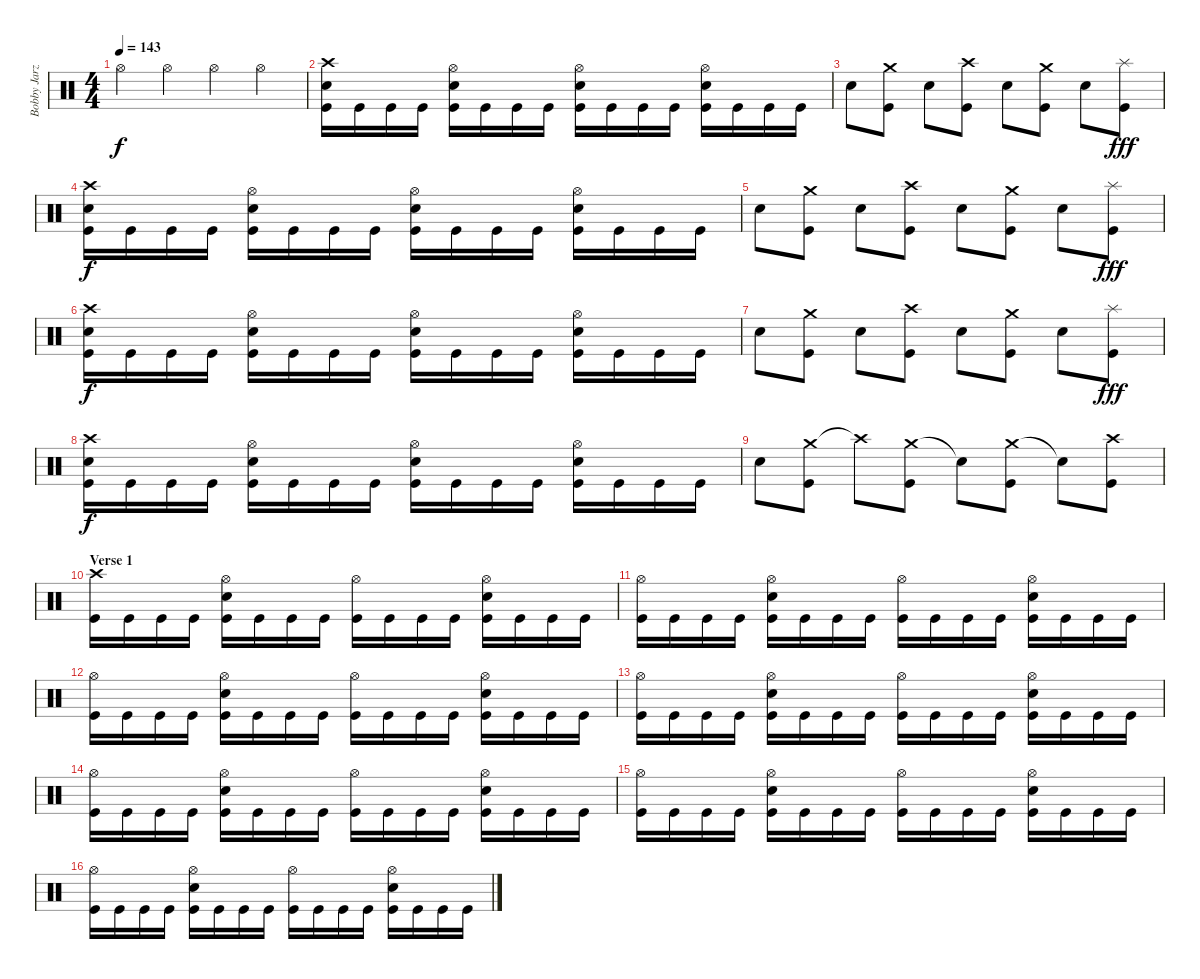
\track ("Bobby Jarzombek" "Bobby Jarz") {instrument percussion}
\staff {score}
\articulation defaults
\ts (4 4)
\tempo 143
\clef neutral
\ks c "Hi-Hat (open)".4{dy f} "Hi-Hat (open)".4 "Hi-Hat (open)".4 "Hi-Hat (open)".4
|
("Crash high (hit)" "Electric Snare (hit)" "Kick (hit)").16 "Kick (hit)".16 "Kick (hit)".16 "Kick (hit)".16 ("Hi-Hat (open)" "Electric Snare (hit)" "Kick (hit)").16 "Kick (hit)".16 "Kick (hit)".16 "Kick (hit)".16 ("Hi-Hat (open)" "Electric Snare (hit)" "Kick (hit)").16 "Kick (hit)".16 "Kick (hit)".16 "Kick (hit)".16 ("Hi-Hat (open)" "Electric Snare (hit)" "Kick (hit)").16 "Kick (hit)".16 "Kick (hit)".16 "Kick (hit)".16 |
"Electric Snare (hit)".8 ("Crash medium (hit)" "Kick (hit)").8 "Electric Snare (hit)".8 ("Crash high (hit)" "Kick (hit)").8 "Electric Snare (hit)".8 ("Crash medium (hit)" "Kick (hit)").8 "Electric Snare (hit)".8 ("Splash (hit)" "Kick (hit)").8{dy fff} |
("Crash high (hit)" "Electric Snare (hit)" "Kick (hit)").16{dy f} "Kick (hit)".16 "Kick (hit)".16 "Kick (hit)".16 ("Hi-Hat (open)" "Electric Snare (hit)" "Kick (hit)").16 "Kick (hit)".16 "Kick (hit)".16 "Kick (hit)".16 ("Hi-Hat (open)" "Electric Snare (hit)" "Kick (hit)").16 "Kick (hit)".16 "Kick (hit)".16 "Kick (hit)".16 ("Hi-Hat (open)" "Electric Snare (hit)" "Kick (hit)").16 "Kick (hit)".16 "Kick (hit)".16 "Kick (hit)".16 |
"Electric Snare (hit)".8 ("Crash medium (hit)" "Kick (hit)").8 "Electric Snare (hit)".8 ("Crash high (hit)" "Kick (hit)").8 "Electric Snare (hit)".8 ("Crash medium (hit)" "Kick (hit)").8 "Electric Snare (hit)".8 ("Splash (hit)" "Kick (hit)").8{dy fff} |
("Crash high (hit)" "Electric Snare (hit)" "Kick (hit)").16{dy f} "Kick (hit)".16 "Kick (hit)".16 "Kick (hit)".16 ("Hi-Hat (open)" "Electric Snare (hit)" "Kick (hit)").16 "Kick (hit)".16 "Kick (hit)".16 "Kick (hit)".16 ("Hi-Hat (open)" "Electric Snare (hit)" "Kick (hit)").16 "Kick (hit)".16 "Kick (hit)".16 "Kick (hit)".16 ("Hi-Hat (open)" "Electric Snare (hit)" "Kick (hit)").16 "Kick (hit)".16 "Kick (hit)".16 "Kick (hit)".16 |
"Electric Snare (hit)".8 ("Crash medium (hit)" "Kick (hit)").8 "Electric Snare (hit)".8 ("Crash high (hit)" "Kick (hit)").8 "Electric Snare (hit)".8 ("Crash medium (hit)" "Kick (hit)").8 "Electric Snare (hit)".8 ("Splash (hit)" "Kick (hit)").8{dy fff} |
("Crash high (hit)" "Electric Snare (hit)" "Kick (hit)").16{dy f} "Kick (hit)".16 "Kick (hit)".16 "Kick (hit)".16 ("Hi-Hat (open)" "Electric Snare (hit)" "Kick (hit)").16 "Kick (hit)".16 "Kick (hit)".16 "Kick (hit)".16 ("Hi-Hat (open)" "Electric Snare (hit)" "Kick (hit)").16 "Kick (hit)".16 "Kick (hit)".16 "Kick (hit)".16 ("Hi-Hat (open)" "Electric Snare (hit)" "Kick (hit)").16 "Kick (hit)".16 "Kick (hit)".16 "Kick (hit)".16 |
"Electric Snare (hit)".8 ("Crash medium (hit)" "Kick (hit)").8 "Crash high (hit)"{t}.8{volume 0} ("Crash medium (hit)" "Kick (hit)").8{volume 13} "Snare (hit)"{t}.8{volume 0} ("Crash medium (hit)" "Kick (hit)").8{volume 13} "Snare (hit)"{t}.8{volume 0} ("Crash high (hit)" "Kick (hit)").8{volume 13} |
\section ("" "Verse 1")
("Crash high (hit)" "Kick (hit)").16 "Kick (hit)".16 "Kick (hit)".16 "Kick (hit)".16 ("Hi-Hat (open)" "Electric Snare (hit)" "Kick (hit)").16 "Kick (hit)".16 "Kick (hit)".16 "Kick (hit)".16 ("Hi-Hat (open)" "Kick (hit)").16 "Kick (hit)".16 "Kick (hit)".16 "Kick (hit)".16 ("Hi-Hat (open)" "Electric Snare (hit)" "Kick (hit)").16 "Kick (hit)".16 "Kick (hit)".16 "Kick (hit)".16 |
("Hi-Hat (open)" "Kick (hit)").16 "Kick (hit)".16 "Kick (hit)".16 "Kick (hit)".16 ("Hi-Hat (open)" "Electric Snare (hit)" "Kick (hit)").16 "Kick (hit)".16 "Kick (hit)".16 "Kick (hit)".16 ("Hi-Hat (open)" "Kick (hit)").16 "Kick (hit)".16 "Kick (hit)".16 "Kick (hit)".16 ("Hi-Hat (open)" "Electric Snare (hit)" "Kick (hit)").16 "Kick (hit)".16 "Kick (hit)".16 "Kick (hit)".16 |
("Hi-Hat (open)" "Kick (hit)").16 "Kick (hit)".16 "Kick (hit)".16 "Kick (hit)".16 ("Hi-Hat (open)" "Electric Snare (hit)" "Kick (hit)").16 "Kick (hit)".16 "Kick (hit)".16 "Kick (hit)".16 ("Hi-Hat (open)" "Kick (hit)").16 "Kick (hit)".16 "Kick (hit)".16 "Kick (hit)".16 ("Hi-Hat (open)" "Electric Snare (hit)" "Kick (hit)").16 "Kick (hit)".16 "Kick (hit)".16 "Kick (hit)".16 |
("Hi-Hat (open)" "Kick (hit)").16 "Kick (hit)".16 "Kick (hit)".16 "Kick (hit)".16 ("Hi-Hat (open)" "Electric Snare (hit)" "Kick (hit)").16 "Kick (hit)".16 "Kick (hit)".16 "Kick (hit)".16 ("Hi-Hat (open)" "Kick (hit)").16 "Kick (hit)".16 "Kick (hit)".16 "Kick (hit)".16 ("Hi-Hat (open)" "Electric Snare (hit)" "Kick (hit)").16 "Kick (hit)".16 "Kick (hit)".16 "Kick (hit)".16 |
("Hi-Hat (open)" "Kick (hit)").16 "Kick (hit)".16 "Kick (hit)".16 "Kick (hit)".16 ("Hi-Hat (open)" "Electric Snare (hit)" "Kick (hit)").16 "Kick (hit)".16 "Kick (hit)".16 "Kick (hit)".16 ("Hi-Hat (open)" "Kick (hit)").16 "Kick (hit)".16 "Kick (hit)".16 "Kick (hit)".16 ("Hi-Hat (open)" "Electric Snare (hit)" "Kick (hit)").16 "Kick (hit)".16 "Kick (hit)".16 "Kick (hit)".16 |
("Hi-Hat (open)" "Kick (hit)").16 "Kick (hit)".16 "Kick (hit)".16 "Kick (hit)".16 ("Hi-Hat (open)" "Electric Snare (hit)" "Kick (hit)").16 "Kick (hit)".16 "Kick (hit)".16 "Kick (hit)".16 ("Hi-Hat (open)" "Kick (hit)").16 "Kick (hit)".16 "Kick (hit)".16 "Kick (hit)".16 ("Hi-Hat (open)" "Electric Snare (hit)" "Kick (hit)").16 "Kick (hit)".16 "Kick (hit)".16 "Kick (hit)".16 |
("Hi-Hat (open)" "Kick (hit)").16 "Kick (hit)".16 "Kick (hit)".16 "Kick (hit)".16 ("Hi-Hat (open)" "Electric Snare (hit)" "Kick (hit)").16 "Kick (hit)".16 "Kick (hit)".16 "Kick (hit)".16 ("Hi-Hat (open)" "Kick (hit)").16 "Kick (hit)".16 "Kick (hit)".16 "Kick (hit)".16 ("Hi-Hat (open)" "Electric Snare (hit)" "Kick (hit)").16 "Kick (hit)".16 "Kick (hit)".16 "Kick (hit)".16
